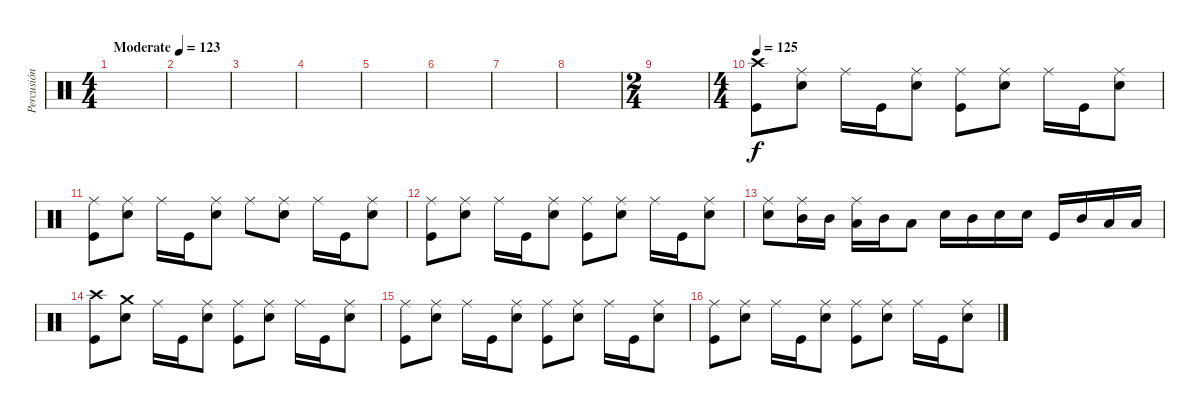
\track ("Percusión" "Percusión") {instrument percussion}
\staff {score}
\articulation defaults
\ts (4 4)
\tempo (123 "Moderate")
\clef neutral
\ks c
|
|
|
|
|
|
|
|
\ts (2 4)
|
\ts (4 4)
\tempo 125
("Kick (hit)" "Crash high (hit)").8 ("Snare (hit) 2" "Ride (middle)").8 "Ride (middle)".16 "Kick (hit)".16 ("Snare (hit) 2" "Ride (middle)").8 ("Kick (hit)" "Ride (middle)").8 ("Snare (hit) 2" "Ride (middle)").8 "Ride (middle)".16 "Kick (hit)".16 ("Snare (hit) 2" "Ride (middle)").8 |
("Kick (hit)" "Ride (middle)").8 ("Snare (hit) 2" "Ride (middle)").8 "Ride (middle)".16 "Kick (hit)".16 ("Snare (hit) 2" "Ride (middle)").8 "Ride (middle)".8 ("Snare (hit) 2" "Ride (middle)").8 "Ride (middle)".16 "Kick (hit)".16 ("Snare (hit) 2" "Ride (middle)").8 |
("Kick (hit)" "Ride (middle)").8 ("Snare (hit) 2" "Ride (middle)").8 "Ride (middle)".16 "Kick (hit)".16 ("Snare (hit) 2" "Ride (middle)").8 ("Kick (hit)" "Ride (middle)").8 ("Snare (hit) 2" "Ride (middle)").8 "Ride (middle)".16 "Kick (hit)".16 ("Snare (hit) 2" "Ride (middle)").8 |
("Snare (hit) 2" "Ride (middle)").8 ("Mid Tom (hit)" "Ride (middle)").16 "Mid Tom (hit)".16 ("Low Tom (hit)" "Ride (middle)").16 "Mid Tom (hit)".16 "Low Tom (hit)".8 "Snare (hit) 2".16 "Mid Tom (hit)".16 "Snare (hit) 2".16 "Snare (hit) 2".16 "Kick (hit)".16 "Mid Tom (hit)".16 "Low Tom (hit)".16 "Low Tom (hit)".16 |
("Kick (hit)" "Crash high (hit)").8 ("Snare (hit) 2" "Crash medium (hit)").8 "Ride (middle)".16 "Kick (hit)".16 ("Snare (hit) 2" "Ride (middle)").8 ("Kick (hit)" "Ride (middle)").8 ("Snare (hit) 2" "Ride (middle)").8 "Ride (middle)".16 "Kick (hit)".16 ("Snare (hit) 2" "Ride (middle)").8 |
("Kick (hit)" "Ride (middle)").8 ("Snare (hit) 2" "Ride (middle)").8 "Ride (middle)".16 "Kick (hit)".16 ("Snare (hit) 2" "Ride (middle)").8 ("Kick (hit)" "Ride (middle)").8 ("Snare (hit) 2" "Ride (middle)").8 "Ride (middle)".16 "Kick (hit)".16 ("Snare (hit) 2" "Ride (middle)").8 |
("Kick (hit)" "Ride (middle)").8 ("Snare (hit) 2" "Ride (middle)").8 "Ride (middle)".16 "Kick (hit)".16 ("Snare (hit) 2" "Ride (middle)").8 ("Kick (hit)" "Ride (middle)").8 ("Snare (hit) 2" "Ride (middle)").8 "Ride (middle)".16 "Kick (hit)".16 ("Snare (hit) 2" "Ride (middle)").8
